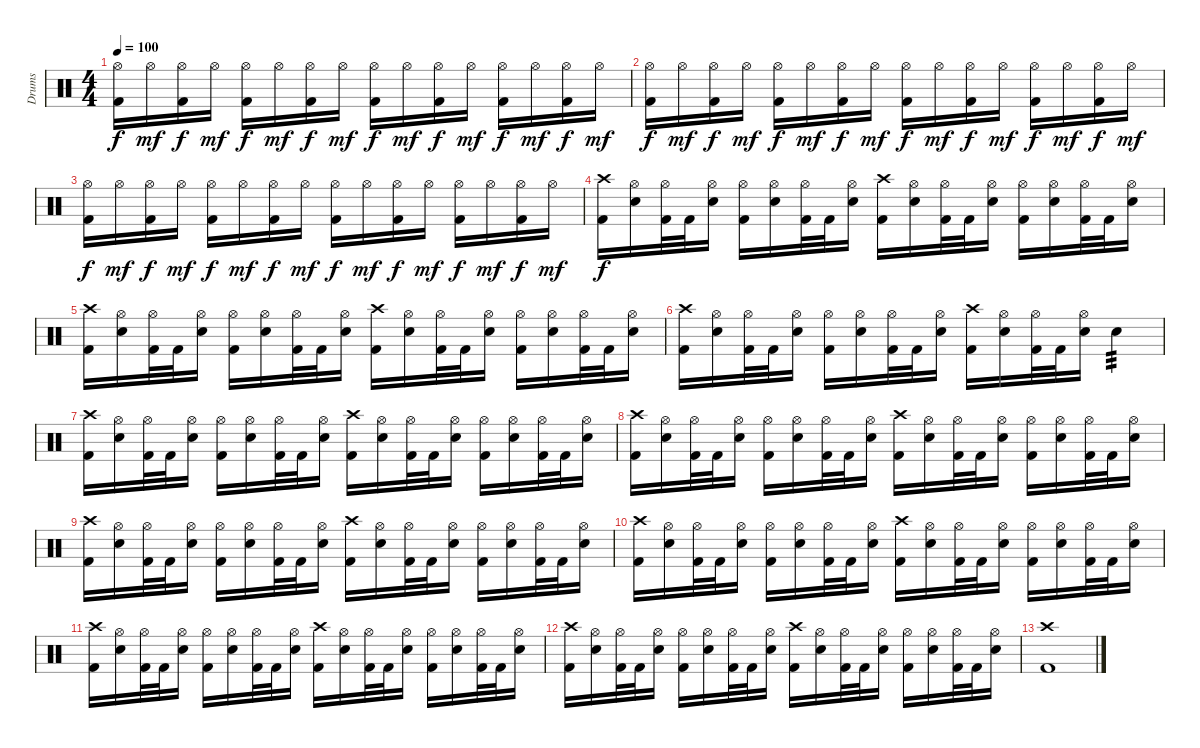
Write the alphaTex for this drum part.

\track ("Drums" "Drums") {instrument percussion}
\staff {score}
\articulation defaults
\ts (4 4)
\tempo 100
\clef neutral
\ks c
("Hi-Hat (open)" "Kick (hit) 2").16{dy f} "Hi-Hat (open)".16{dy mf} ("Hi-Hat (open)" "Kick (hit) 2").16{dy f} "Hi-Hat (open)".16{dy mf} ("Hi-Hat (open)" "Kick (hit) 2").16{dy f} "Hi-Hat (open)".16{dy mf} ("Hi-Hat (open)" "Kick (hit) 2").16{dy f} "Hi-Hat (open)".16{dy mf} ("Hi-Hat (open)" "Kick (hit) 2").16{dy f} "Hi-Hat (open)".16{dy mf} ("Hi-Hat (open)" "Kick (hit) 2").16{dy f} "Hi-Hat (open)".16{dy mf} ("Hi-Hat (open)" "Kick (hit) 2").16{dy f} "Hi-Hat (open)".16{dy mf} ("Hi-Hat (open)" "Kick (hit) 2").16{dy f} "Hi-Hat (open)".16{dy mf} |
("Hi-Hat (open)" "Kick (hit) 2").16{dy f} "Hi-Hat (open)".16{dy mf} ("Hi-Hat (open)" "Kick (hit) 2").16{dy f} "Hi-Hat (open)".16{dy mf} ("Hi-Hat (open)" "Kick (hit) 2").16{dy f} "Hi-Hat (open)".16{dy mf} ("Hi-Hat (open)" "Kick (hit) 2").16{dy f} "Hi-Hat (open)".16{dy mf} ("Hi-Hat (open)" "Kick (hit) 2").16{dy f} "Hi-Hat (open)".16{dy mf} ("Hi-Hat (open)" "Kick (hit) 2").16{dy f} "Hi-Hat (open)".16{dy mf} ("Hi-Hat (open)" "Kick (hit) 2").16{dy f} "Hi-Hat (open)".16{dy mf} ("Hi-Hat (open)" "Kick (hit) 2").16{dy f} "Hi-Hat (open)".16{dy mf} |
("Hi-Hat (open)" "Kick (hit) 2").16{dy f} "Hi-Hat (open)".16{dy mf} ("Hi-Hat (open)" "Kick (hit) 2").16{dy f} "Hi-Hat (open)".16{dy mf} ("Hi-Hat (open)" "Kick (hit) 2").16{dy f} "Hi-Hat (open)".16{dy mf} ("Hi-Hat (open)" "Kick (hit) 2").16{dy f} "Hi-Hat (open)".16{dy mf} ("Hi-Hat (open)" "Kick (hit) 2").16{dy f} "Hi-Hat (open)".16{dy mf} ("Hi-Hat (open)" "Kick (hit) 2").16{dy f} "Hi-Hat (open)".16{dy mf} ("Hi-Hat (open)" "Kick (hit) 2").16{dy f} "Hi-Hat (open)".16{dy mf} ("Hi-Hat (open)" "Kick (hit) 2").16{dy f} "Hi-Hat (open)".16{dy mf} |
("Crash high (hit)" "Kick (hit) 2").16{dy f} ("Hi-Hat (open)" "Electric Snare (hit)").16 ("Hi-Hat (open)" "Kick (hit) 2").32 "Kick (hit) 2".32 ("Hi-Hat (open)" "Electric Snare (hit)").16 ("Hi-Hat (open)" "Kick (hit) 2").16 ("Hi-Hat (open)" "Electric Snare (hit)").16 ("Hi-Hat (open)" "Kick (hit) 2").32 "Kick (hit) 2".32 ("Hi-Hat (open)" "Electric Snare (hit)").16 ("Crash high (hit)" "Kick (hit) 2").16 ("Hi-Hat (open)" "Electric Snare (hit)").16 ("Hi-Hat (open)" "Kick (hit) 2").32 "Kick (hit) 2".32 ("Hi-Hat (open)" "Electric Snare (hit)").16 ("Hi-Hat (open)" "Kick (hit) 2").16 ("Hi-Hat (open)" "Electric Snare (hit)").16 ("Hi-Hat (open)" "Kick (hit) 2").32 "Kick (hit) 2".32 ("Hi-Hat (open)" "Electric Snare (hit)").16 |
("Crash high (hit)" "Kick (hit) 2").16 ("Hi-Hat (open)" "Electric Snare (hit)").16 ("Hi-Hat (open)" "Kick (hit) 2").32 "Kick (hit) 2".32 ("Hi-Hat (open)" "Electric Snare (hit)").16 ("Hi-Hat (open)" "Kick (hit) 2").16 ("Hi-Hat (open)" "Electric Snare (hit)").16 ("Hi-Hat (open)" "Kick (hit) 2").32 "Kick (hit) 2".32 ("Hi-Hat (open)" "Electric Snare (hit)").16 ("Crash high (hit)" "Kick (hit) 2").16 ("Hi-Hat (open)" "Electric Snare (hit)").16 ("Hi-Hat (open)" "Kick (hit) 2").32 "Kick (hit) 2".32 ("Hi-Hat (open)" "Electric Snare (hit)").16 ("Hi-Hat (open)" "Kick (hit) 2").16 ("Hi-Hat (open)" "Electric Snare (hit)").16 ("Hi-Hat (open)" "Kick (hit) 2").32 "Kick (hit) 2".32 ("Hi-Hat (open)" "Electric Snare (hit)").16 |
("Crash high (hit)" "Kick (hit) 2").16 ("Hi-Hat (open)" "Electric Snare (hit)").16 ("Hi-Hat (open)" "Kick (hit) 2").32 "Kick (hit) 2".32 ("Hi-Hat (open)" "Electric Snare (hit)").16 ("Hi-Hat (open)" "Kick (hit) 2").16 ("Hi-Hat (open)" "Electric Snare (hit)").16 ("Hi-Hat (open)" "Kick (hit) 2").32 "Kick (hit) 2".32 ("Hi-Hat (open)" "Electric Snare (hit)").16 ("Crash high (hit)" "Kick (hit) 2").16 ("Hi-Hat (open)" "Electric Snare (hit)").16 ("Hi-Hat (open)" "Kick (hit) 2").32 "Kick (hit) 2".32 ("Hi-Hat (open)" "Electric Snare (hit)").16 "Electric Snare (hit)".4{tp 3} |
("Crash high (hit)" "Kick (hit) 2").16 ("Hi-Hat (open)" "Electric Snare (hit)").16 ("Hi-Hat (open)" "Kick (hit) 2").32 "Kick (hit) 2".32 ("Hi-Hat (open)" "Electric Snare (hit)").16 ("Hi-Hat (open)" "Kick (hit) 2").16 ("Hi-Hat (open)" "Electric Snare (hit)").16 ("Hi-Hat (open)" "Kick (hit) 2").32 "Kick (hit) 2".32 ("Hi-Hat (open)" "Electric Snare (hit)").16 ("Crash high (hit)" "Kick (hit) 2").16 ("Hi-Hat (open)" "Electric Snare (hit)").16 ("Hi-Hat (open)" "Kick (hit) 2").32 "Kick (hit) 2".32 ("Hi-Hat (open)" "Electric Snare (hit)").16 ("Hi-Hat (open)" "Kick (hit) 2").16 ("Hi-Hat (open)" "Electric Snare (hit)").16 ("Hi-Hat (open)" "Kick (hit) 2").32 "Kick (hit) 2".32 ("Hi-Hat (open)" "Electric Snare (hit)").16 |
("Crash high (hit)" "Kick (hit) 2").16 ("Hi-Hat (open)" "Electric Snare (hit)").16 ("Hi-Hat (open)" "Kick (hit) 2").32 "Kick (hit) 2".32 ("Hi-Hat (open)" "Electric Snare (hit)").16 ("Hi-Hat (open)" "Kick (hit) 2").16 ("Hi-Hat (open)" "Electric Snare (hit)").16 ("Hi-Hat (open)" "Kick (hit) 2").32 "Kick (hit) 2".32 ("Hi-Hat (open)" "Electric Snare (hit)").16 ("Crash high (hit)" "Kick (hit) 2").16 ("Hi-Hat (open)" "Electric Snare (hit)").16 ("Hi-Hat (open)" "Kick (hit) 2").32 "Kick (hit) 2".32 ("Hi-Hat (open)" "Electric Snare (hit)").16 ("Hi-Hat (open)" "Kick (hit) 2").16 ("Hi-Hat (open)" "Electric Snare (hit)").16 ("Hi-Hat (open)" "Kick (hit) 2").32 "Kick (hit) 2".32 ("Hi-Hat (open)" "Electric Snare (hit)").16 |
("Crash high (hit)" "Kick (hit) 2").16 ("Hi-Hat (open)" "Electric Snare (hit)").16 ("Hi-Hat (open)" "Kick (hit) 2").32 "Kick (hit) 2".32 ("Hi-Hat (open)" "Electric Snare (hit)").16 ("Hi-Hat (open)" "Kick (hit) 2").16 ("Hi-Hat (open)" "Electric Snare (hit)").16 ("Hi-Hat (open)" "Kick (hit) 2").32 "Kick (hit) 2".32 ("Hi-Hat (open)" "Electric Snare (hit)").16 ("Crash high (hit)" "Kick (hit) 2").16 ("Hi-Hat (open)" "Electric Snare (hit)").16 ("Hi-Hat (open)" "Kick (hit) 2").32 "Kick (hit) 2".32 ("Hi-Hat (open)" "Electric Snare (hit)").16 ("Hi-Hat (open)" "Kick (hit) 2").16 ("Hi-Hat (open)" "Electric Snare (hit)").16 ("Hi-Hat (open)" "Kick (hit) 2").32 "Kick (hit) 2".32 ("Hi-Hat (open)" "Electric Snare (hit)").16 |
("Crash high (hit)" "Kick (hit) 2").16 ("Hi-Hat (open)" "Electric Snare (hit)").16 ("Hi-Hat (open)" "Kick (hit) 2").32 "Kick (hit) 2".32 ("Hi-Hat (open)" "Electric Snare (hit)").16 ("Hi-Hat (open)" "Kick (hit) 2").16 ("Hi-Hat (open)" "Electric Snare (hit)").16 ("Hi-Hat (open)" "Kick (hit) 2").32 "Kick (hit) 2".32 ("Hi-Hat (open)" "Electric Snare (hit)").16 ("Crash high (hit)" "Kick (hit) 2").16 ("Hi-Hat (open)" "Electric Snare (hit)").16 ("Hi-Hat (open)" "Kick (hit) 2").32 "Kick (hit) 2".32 ("Hi-Hat (open)" "Electric Snare (hit)").16 ("Hi-Hat (open)" "Kick (hit) 2").16 ("Hi-Hat (open)" "Electric Snare (hit)").16 ("Hi-Hat (open)" "Kick (hit) 2").32 "Kick (hit) 2".32 ("Hi-Hat (open)" "Electric Snare (hit)").16 |
("Crash high (hit)" "Kick (hit) 2").16 ("Hi-Hat (open)" "Electric Snare (hit)").16 ("Hi-Hat (open)" "Kick (hit) 2").32 "Kick (hit) 2".32 ("Hi-Hat (open)" "Electric Snare (hit)").16 ("Hi-Hat (open)" "Kick (hit) 2").16 ("Hi-Hat (open)" "Electric Snare (hit)").16 ("Hi-Hat (open)" "Kick (hit) 2").32 "Kick (hit) 2".32 ("Hi-Hat (open)" "Electric Snare (hit)").16 ("Crash high (hit)" "Kick (hit) 2").16 ("Hi-Hat (open)" "Electric Snare (hit)").16 ("Hi-Hat (open)" "Kick (hit) 2").32 "Kick (hit) 2".32 ("Hi-Hat (open)" "Electric Snare (hit)").16 ("Hi-Hat (open)" "Kick (hit) 2").16 ("Hi-Hat (open)" "Electric Snare (hit)").16 ("Hi-Hat (open)" "Kick (hit) 2").32 "Kick (hit) 2".32 ("Hi-Hat (open)" "Electric Snare (hit)").16 |
("Crash high (hit)" "Kick (hit) 2").16 ("Hi-Hat (open)" "Electric Snare (hit)").16 ("Hi-Hat (open)" "Kick (hit) 2").32 "Kick (hit) 2".32 ("Hi-Hat (open)" "Electric Snare (hit)").16 ("Hi-Hat (open)" "Kick (hit) 2").16 ("Hi-Hat (open)" "Electric Snare (hit)").16 ("Hi-Hat (open)" "Kick (hit) 2").32 "Kick (hit) 2".32 ("Hi-Hat (open)" "Electric Snare (hit)").16 ("Crash high (hit)" "Kick (hit) 2").16 ("Hi-Hat (open)" "Electric Snare (hit)").16 ("Hi-Hat (open)" "Kick (hit) 2").32 "Kick (hit) 2".32 ("Hi-Hat (open)" "Electric Snare (hit)").16 ("Hi-Hat (open)" "Kick (hit) 2").16 ("Hi-Hat (open)" "Electric Snare (hit)").16 ("Hi-Hat (open)" "Kick (hit) 2").32 "Kick (hit) 2".32 ("Hi-Hat (open)" "Electric Snare (hit)").16 |
("Crash high (hit)" "Kick (hit) 2").1
